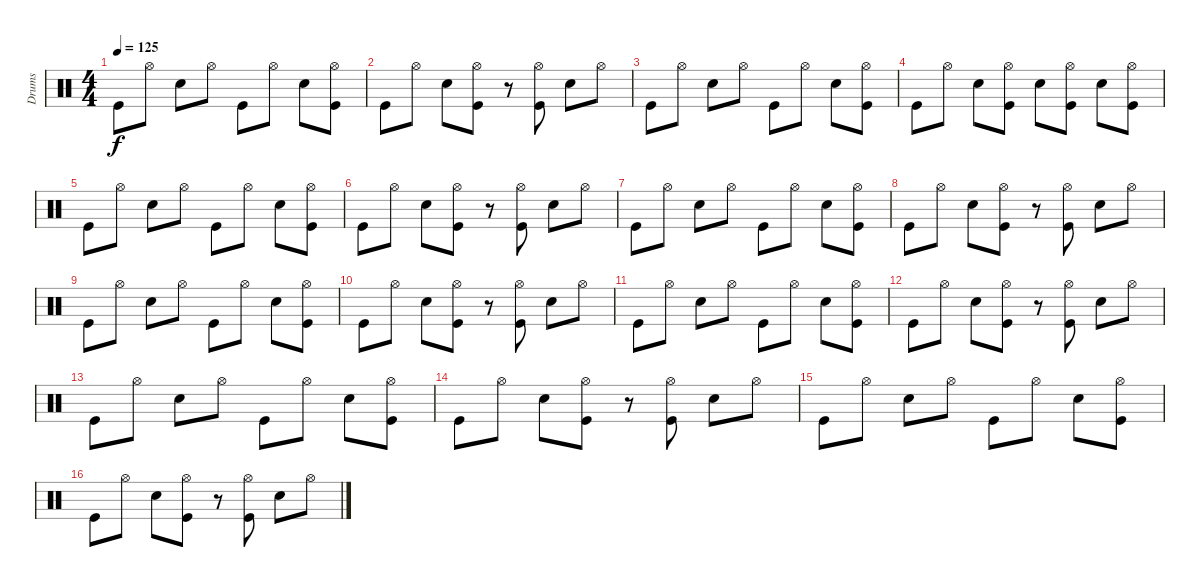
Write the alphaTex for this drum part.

\track ("Drums" "Drums") {instrument percussion}
\staff {score}
\articulation defaults
\ts (4 4)
\tempo 125
\clef neutral
\ks c "Kick (hit)".8{dy f} "Hi-Hat (open)".8 "Electric Snare (hit)".8 "Hi-Hat (open)".8 "Kick (hit)".8 "Hi-Hat (open)".8 "Electric Snare (hit)".8
("Hi-Hat (open)" "Kick (hit)").8 |
"Kick (hit)".8 "Hi-Hat (open)".8 "Electric Snare (hit)".8 ("Hi-Hat (open)" "Kick (hit)").8 r.8 ("Hi-Hat (open)" "Kick (hit)").8 "Electric Snare (hit)".8 "Hi-Hat (open)".8 |
"Kick (hit)".8 "Hi-Hat (open)".8 "Electric Snare (hit)".8 "Hi-Hat (open)".8 "Kick (hit)".8 "Hi-Hat (open)".8 "Electric Snare (hit)".8 ("Hi-Hat (open)" "Kick (hit)").8 |
"Kick (hit)".8 "Hi-Hat (open)".8 "Electric Snare (hit)".8 ("Hi-Hat (open)" "Kick (hit)").8 "Electric Snare (hit)".8 ("Hi-Hat (open)" "Kick (hit)").8 "Electric Snare (hit)".8 ("Hi-Hat (open)" "Kick (hit)").8 |
"Kick (hit)".8 "Hi-Hat (open)".8 "Electric Snare (hit)".8 "Hi-Hat (open)".8 "Kick (hit)".8 "Hi-Hat (open)".8 "Electric Snare (hit)".8 ("Hi-Hat (open)" "Kick (hit)").8 |
"Kick (hit)".8 "Hi-Hat (open)".8 "Electric Snare (hit)".8 ("Hi-Hat (open)" "Kick (hit)").8 r.8 ("Hi-Hat (open)" "Kick (hit)").8 "Electric Snare (hit)".8 "Hi-Hat (open)".8 |
"Kick (hit)".8 "Hi-Hat (open)".8 "Electric Snare (hit)".8 "Hi-Hat (open)".8 "Kick (hit)".8 "Hi-Hat (open)".8 "Electric Snare (hit)".8 ("Hi-Hat (open)" "Kick (hit)").8 |
"Kick (hit)".8 "Hi-Hat (open)".8 "Electric Snare (hit)".8 ("Hi-Hat (open)" "Kick (hit)").8 r.8 ("Hi-Hat (open)" "Kick (hit)").8 "Electric Snare (hit)".8 "Hi-Hat (open)".8 |
"Kick (hit)".8 "Hi-Hat (open)".8 "Electric Snare (hit)".8 "Hi-Hat (open)".8 "Kick (hit)".8 "Hi-Hat (open)".8 "Electric Snare (hit)".8 ("Hi-Hat (open)" "Kick (hit)").8 |
"Kick (hit)".8 "Hi-Hat (open)".8 "Electric Snare (hit)".8 ("Hi-Hat (open)" "Kick (hit)").8 r.8 ("Hi-Hat (open)" "Kick (hit)").8 "Electric Snare (hit)".8 "Hi-Hat (open)".8 |
"Kick (hit)".8 "Hi-Hat (open)".8 "Electric Snare (hit)".8 "Hi-Hat (open)".8 "Kick (hit)".8 "Hi-Hat (open)".8 "Electric Snare (hit)".8 ("Hi-Hat (open)" "Kick (hit)").8 |
"Kick (hit)".8 "Hi-Hat (open)".8 "Electric Snare (hit)".8 ("Hi-Hat (open)" "Kick (hit)").8 r.8 ("Hi-Hat (open)" "Kick (hit)").8 "Electric Snare (hit)".8 "Hi-Hat (open)".8 |
"Kick (hit)".8 "Hi-Hat (open)".8 "Electric Snare (hit)".8 "Hi-Hat (open)".8 "Kick (hit)".8 "Hi-Hat (open)".8 "Electric Snare (hit)".8 ("Hi-Hat (open)" "Kick (hit)").8 |
"Kick (hit)".8 "Hi-Hat (open)".8 "Electric Snare (hit)".8 ("Hi-Hat (open)" "Kick (hit)").8 r.8 ("Hi-Hat (open)" "Kick (hit)").8 "Electric Snare (hit)".8 "Hi-Hat (open)".8 |
"Kick (hit)".8 "Hi-Hat (open)".8 "Electric Snare (hit)".8 "Hi-Hat (open)".8 "Kick (hit)".8 "Hi-Hat (open)".8 "Electric Snare (hit)".8 ("Hi-Hat (open)" "Kick (hit)").8 |
"Kick (hit)".8 "Hi-Hat (open)".8 "Electric Snare (hit)".8 ("Hi-Hat (open)" "Kick (hit)").8 r.8 ("Hi-Hat (open)" "Kick (hit)").8 "Electric Snare (hit)".8 "Hi-Hat (open)".8
